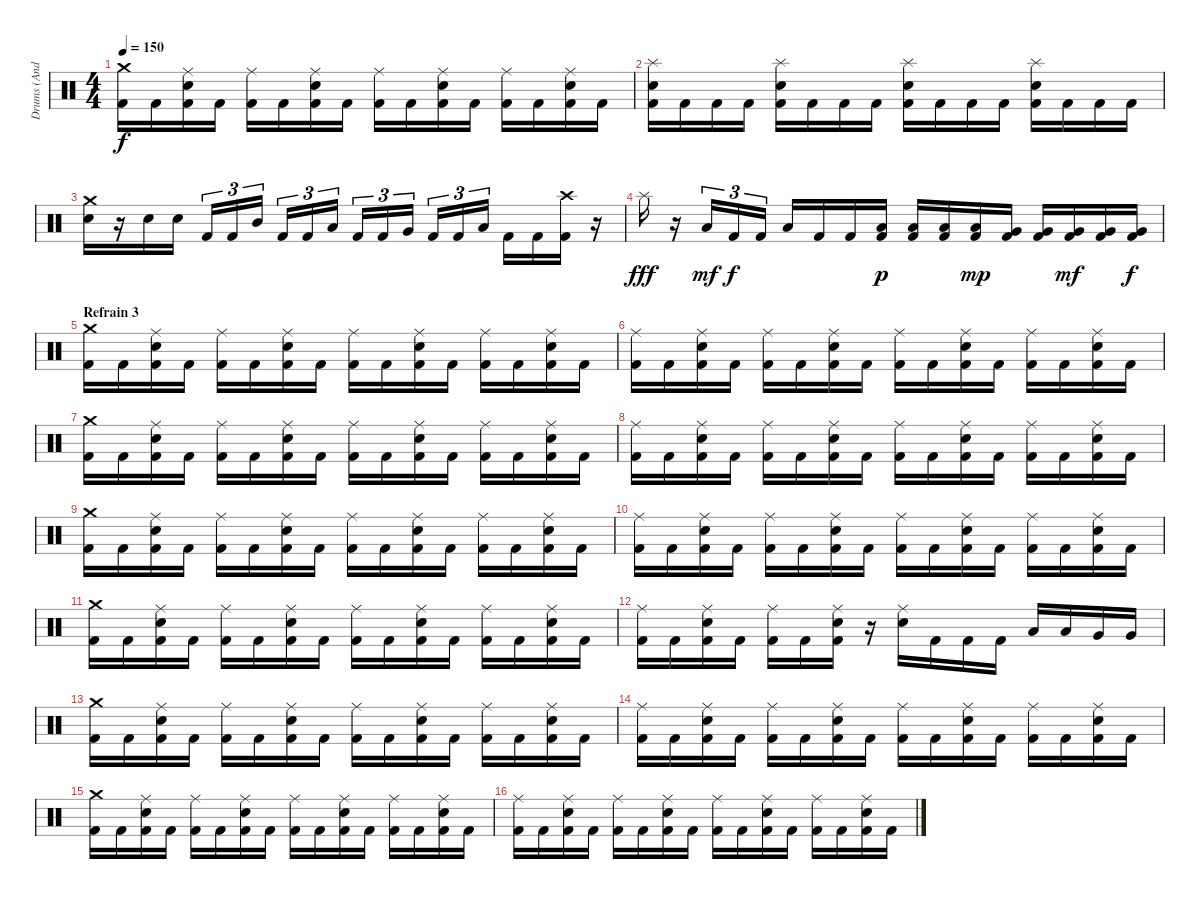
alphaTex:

\track ("Drums (Andy C)" "Drums (And") {instrument percussion}
\staff {score}
\articulation defaults
\ts (4 4)
\tempo 150
\clef neutral
\ks c
("Crash medium (hit)" "Kick (hit) 2").16{dy f} "Kick (hit) 2".16 ("Ride (middle)" "Kick (hit) 2" "Electric Snare (hit)").16 "Kick (hit) 2".16 ("Ride (middle)" "Kick (hit) 2").16 "Kick (hit) 2".16 ("Ride (middle)" "Kick (hit) 2" "Electric Snare (hit)").16 "Kick (hit) 2".16 ("Ride (middle)" "Kick (hit) 2").16 "Kick (hit) 2".16 ("Ride (middle)" "Kick (hit) 2" "Electric Snare (hit)").16 "Kick (hit) 2".16 ("Ride (middle)" "Kick (hit) 2").16 "Kick (hit) 2".16 ("Ride (middle)" "Kick (hit) 2" "Electric Snare (hit)").16 "Kick (hit) 2".16 |
("Splash (hit)" "Kick (hit) 2" "Electric Snare (hit)").16 "Kick (hit) 2".16 "Kick (hit) 2".16 "Kick (hit) 2".16 ("Splash (hit)" "Kick (hit) 2" "Electric Snare (hit)").16 "Kick (hit) 2".16 "Kick (hit) 2".16 "Kick (hit) 2".16 ("Splash (hit)" "Kick (hit) 2" "Electric Snare (hit)").16 "Kick (hit) 2".16 "Kick (hit) 2".16 "Kick (hit) 2".16 ("Splash (hit)" "Kick (hit) 2" "Electric Snare (hit)").16 "Kick (hit) 2".16 "Kick (hit) 2".16 "Kick (hit) 2".16 |
("Crash medium (hit)" "Electric Snare (hit)").16 r.16 "Electric Snare (hit)".16 "Electric Snare (hit)".16 "Kick (hit) 2".16{tu (3 2)} "Kick (hit) 2".16{tu (3 2)} "Mid Tom (hit)".16{tu (3 2)} "Kick (hit) 2".16{tu (3 2)} "Kick (hit) 2".16{tu (3 2)} "Low Tom (hit)".16{tu (3 2)} "Kick (hit) 2".16{tu (3 2)} "Kick (hit) 2".16{tu (3 2)} "Very Low Tom (hit)".16{tu (3 2)} "Kick (hit) 2".16{tu (3 2)} "Kick (hit) 2".16{tu (3 2)} "Low Floor Tom (hit)".16{tu (3 2)} "Kick (hit) 2".16 "Kick (hit) 2".16 ("Crash high (hit)" "Kick (hit) 2").16 r.16 |
"Splash (hit)".16{dy fff} r.16 "Low Tom (hit)".16{tu (3 2) dy mf} "Kick (hit) 2".16{tu (3 2) dy f} "Kick (hit) 2".16{tu (3 2)} "Low Tom (hit)".16 "Kick (hit) 2".16 "Kick (hit) 2".16 ("Low Tom (hit)" "Kick (hit) 2").16{dy p} ("Low Tom (hit)" "Kick (hit) 2").16 ("Low Tom (hit)" "Kick (hit) 2").16 ("Low Tom (hit)" "Kick (hit) 2").16{dy mp} ("Very Low Tom (hit)" "Kick (hit) 2").16 ("Very Low Tom (hit)" "Kick (hit) 2").16 ("Very Low Tom (hit)" "Kick (hit) 2").16{dy mf} ("Very Low Tom (hit)" "Kick (hit) 2").16 ("Very Low Tom (hit)" "Kick (hit) 2").16{dy f} |
\section ("" "Refrain 3")
("Crash medium (hit)" "Kick (hit) 2").16 "Kick (hit) 2".16 ("Ride (middle)" "Kick (hit) 2" "Electric Snare (hit)").16 "Kick (hit) 2".16 ("Ride (middle)" "Kick (hit) 2").16 "Kick (hit) 2".16 ("Ride (middle)" "Kick (hit) 2" "Electric Snare (hit)").16 "Kick (hit) 2".16 ("Ride (middle)" "Kick (hit) 2").16 "Kick (hit) 2".16 ("Ride (middle)" "Kick (hit) 2" "Electric Snare (hit)").16 "Kick (hit) 2".16 ("Ride (middle)" "Kick (hit) 2").16 "Kick (hit) 2".16 ("Ride (middle)" "Kick (hit) 2" "Electric Snare (hit)").16 "Kick (hit) 2".16 |
("Ride (middle)" "Kick (hit) 2").16 "Kick (hit) 2".16 ("Ride (middle)" "Kick (hit) 2" "Electric Snare (hit)").16 "Kick (hit) 2".16 ("Ride (middle)" "Kick (hit) 2").16 "Kick (hit) 2".16 ("Ride (middle)" "Kick (hit) 2" "Electric Snare (hit)").16 "Kick (hit) 2".16 ("Ride (middle)" "Kick (hit) 2").16 "Kick (hit) 2".16 ("Ride (middle)" "Kick (hit) 2" "Electric Snare (hit)").16 "Kick (hit) 2".16 ("Ride (middle)" "Kick (hit) 2").16 "Kick (hit) 2".16 ("Ride (middle)" "Kick (hit) 2" "Electric Snare (hit)").16 "Kick (hit) 2".16 |
("Crash medium (hit)" "Kick (hit) 2").16 "Kick (hit) 2".16 ("Ride (middle)" "Kick (hit) 2" "Electric Snare (hit)").16 "Kick (hit) 2".16 ("Ride (middle)" "Kick (hit) 2").16 "Kick (hit) 2".16 ("Ride (middle)" "Kick (hit) 2" "Electric Snare (hit)").16 "Kick (hit) 2".16 ("Ride (middle)" "Kick (hit) 2").16 "Kick (hit) 2".16 ("Ride (middle)" "Kick (hit) 2" "Electric Snare (hit)").16 "Kick (hit) 2".16 ("Ride (middle)" "Kick (hit) 2").16 "Kick (hit) 2".16 ("Ride (middle)" "Kick (hit) 2" "Electric Snare (hit)").16 "Kick (hit) 2".16 |
("Ride (middle)" "Kick (hit) 2").16 "Kick (hit) 2".16 ("Ride (middle)" "Kick (hit) 2" "Electric Snare (hit)").16 "Kick (hit) 2".16 ("Ride (middle)" "Kick (hit) 2").16 "Kick (hit) 2".16 ("Ride (middle)" "Kick (hit) 2" "Electric Snare (hit)").16 "Kick (hit) 2".16 ("Ride (middle)" "Kick (hit) 2").16 "Kick (hit) 2".16 ("Ride (middle)" "Kick (hit) 2" "Electric Snare (hit)").16 "Kick (hit) 2".16 ("Ride (middle)" "Kick (hit) 2").16 "Kick (hit) 2".16 ("Ride (middle)" "Kick (hit) 2" "Electric Snare (hit)").16 "Kick (hit) 2".16 |
("Crash medium (hit)" "Kick (hit) 2").16 "Kick (hit) 2".16 ("Ride (middle)" "Kick (hit) 2" "Electric Snare (hit)").16 "Kick (hit) 2".16 ("Ride (middle)" "Kick (hit) 2").16 "Kick (hit) 2".16 ("Ride (middle)" "Kick (hit) 2" "Electric Snare (hit)").16 "Kick (hit) 2".16 ("Ride (middle)" "Kick (hit) 2").16 "Kick (hit) 2".16 ("Ride (middle)" "Kick (hit) 2" "Electric Snare (hit)").16 "Kick (hit) 2".16 ("Ride (middle)" "Kick (hit) 2").16 "Kick (hit) 2".16 ("Ride (middle)" "Kick (hit) 2" "Electric Snare (hit)").16 "Kick (hit) 2".16 |
("Ride (middle)" "Kick (hit) 2").16 "Kick (hit) 2".16 ("Ride (middle)" "Kick (hit) 2" "Electric Snare (hit)").16 "Kick (hit) 2".16 ("Ride (middle)" "Kick (hit) 2").16 "Kick (hit) 2".16 ("Ride (middle)" "Kick (hit) 2" "Electric Snare (hit)").16 "Kick (hit) 2".16 ("Ride (middle)" "Kick (hit) 2").16 "Kick (hit) 2".16 ("Ride (middle)" "Kick (hit) 2" "Electric Snare (hit)").16 "Kick (hit) 2".16 ("Ride (middle)" "Kick (hit) 2").16 "Kick (hit) 2".16 ("Ride (middle)" "Kick (hit) 2" "Electric Snare (hit)").16 "Kick (hit) 2".16 |
("Crash medium (hit)" "Kick (hit) 2").16 "Kick (hit) 2".16 ("Ride (middle)" "Kick (hit) 2" "Electric Snare (hit)").16 "Kick (hit) 2".16 ("Ride (middle)" "Kick (hit) 2").16 "Kick (hit) 2".16 ("Ride (middle)" "Kick (hit) 2" "Electric Snare (hit)").16 "Kick (hit) 2".16 ("Ride (middle)" "Kick (hit) 2").16 "Kick (hit) 2".16 ("Ride (middle)" "Kick (hit) 2" "Electric Snare (hit)").16 "Kick (hit) 2".16 ("Ride (middle)" "Kick (hit) 2").16 "Kick (hit) 2".16 ("Ride (middle)" "Kick (hit) 2" "Electric Snare (hit)").16 "Kick (hit) 2".16 |
("Ride (middle)" "Kick (hit) 2").16 "Kick (hit) 2".16 ("Ride (middle)" "Kick (hit) 2" "Electric Snare (hit)").16 "Kick (hit) 2".16 ("Ride (middle)" "Kick (hit) 2").16 "Kick (hit) 2".16 ("Ride (middle)" "Kick (hit) 2" "Electric Snare (hit)").16 r.16 ("Ride (middle)" "Electric Snare (hit)").16 "Kick (hit) 2".16 "Kick (hit) 2".16 "Kick (hit) 2".16 "Low Tom (hit)".16 "Low Tom (hit)".16 "Very Low Tom (hit)".16 "Very Low Tom (hit)".16 |
("Crash medium (hit)" "Kick (hit) 2").16 "Kick (hit) 2".16 ("Ride (middle)" "Kick (hit) 2" "Electric Snare (hit)").16 "Kick (hit) 2".16 ("Ride (middle)" "Kick (hit) 2").16 "Kick (hit) 2".16 ("Ride (middle)" "Kick (hit) 2" "Electric Snare (hit)").16 "Kick (hit) 2".16 ("Ride (middle)" "Kick (hit) 2").16 "Kick (hit) 2".16 ("Ride (middle)" "Kick (hit) 2" "Electric Snare (hit)").16 "Kick (hit) 2".16 ("Ride (middle)" "Kick (hit) 2").16 "Kick (hit) 2".16 ("Ride (middle)" "Kick (hit) 2" "Electric Snare (hit)").16 "Kick (hit) 2".16 |
("Ride (middle)" "Kick (hit) 2").16 "Kick (hit) 2".16 ("Ride (middle)" "Kick (hit) 2" "Electric Snare (hit)").16 "Kick (hit) 2".16 ("Ride (middle)" "Kick (hit) 2").16 "Kick (hit) 2".16 ("Ride (middle)" "Kick (hit) 2" "Electric Snare (hit)").16 "Kick (hit) 2".16 ("Ride (middle)" "Kick (hit) 2").16 "Kick (hit) 2".16 ("Ride (middle)" "Kick (hit) 2" "Electric Snare (hit)").16 "Kick (hit) 2".16 ("Ride (middle)" "Kick (hit) 2").16 "Kick (hit) 2".16 ("Ride (middle)" "Kick (hit) 2" "Electric Snare (hit)").16 "Kick (hit) 2".16 |
("Crash medium (hit)" "Kick (hit) 2").16 "Kick (hit) 2".16 ("Ride (middle)" "Kick (hit) 2" "Electric Snare (hit)").16 "Kick (hit) 2".16 ("Ride (middle)" "Kick (hit) 2").16 "Kick (hit) 2".16 ("Ride (middle)" "Kick (hit) 2" "Electric Snare (hit)").16 "Kick (hit) 2".16 ("Ride (middle)" "Kick (hit) 2").16 "Kick (hit) 2".16 ("Ride (middle)" "Kick (hit) 2" "Electric Snare (hit)").16 "Kick (hit) 2".16 ("Ride (middle)" "Kick (hit) 2").16 "Kick (hit) 2".16 ("Ride (middle)" "Kick (hit) 2" "Electric Snare (hit)").16 "Kick (hit) 2".16 |
("Ride (middle)" "Kick (hit) 2").16 "Kick (hit) 2".16 ("Ride (middle)" "Kick (hit) 2" "Electric Snare (hit)").16 "Kick (hit) 2".16 ("Ride (middle)" "Kick (hit) 2").16 "Kick (hit) 2".16 ("Ride (middle)" "Kick (hit) 2" "Electric Snare (hit)").16 "Kick (hit) 2".16 ("Ride (middle)" "Kick (hit) 2").16 "Kick (hit) 2".16 ("Ride (middle)" "Kick (hit) 2" "Electric Snare (hit)").16 "Kick (hit) 2".16 ("Ride (middle)" "Kick (hit) 2").16 "Kick (hit) 2".16 ("Ride (middle)" "Kick (hit) 2" "Electric Snare (hit)").16 "Kick (hit) 2".16
